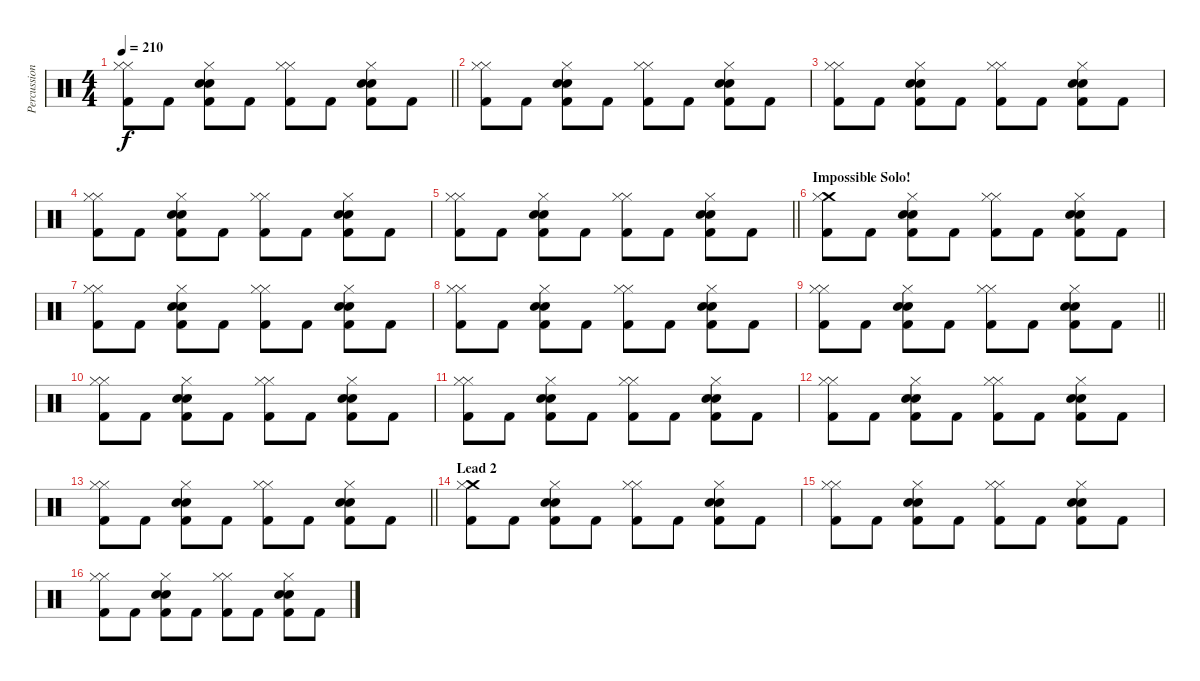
\track ("Percussion" "Percussion") {instrument percussion}
\staff {score}
\articulation defaults
\ts (4 4)
\tempo 210
\clef neutral
\barLineRight lightlight
\ks c
("Hi-Hat (closed)" "Hi-Hat (closed)" "Kick (hit) 2").8{dy f} "Kick (hit) 2".8 ("Hi-Hat (closed)" "Snare (hit) 2" "Electric Snare (hit)" "Kick (hit) 2").8 "Kick (hit) 2".8 ("Hi-Hat (closed)" "Hi-Hat (closed)" "Kick (hit) 2").8 "Kick (hit) 2".8 ("Hi-Hat (closed)" "Snare (hit) 2" "Electric Snare (hit)" "Kick (hit) 2").8 "Kick (hit) 2".8 |
("Hi-Hat (closed)" "Hi-Hat (closed)" "Kick (hit) 2").8 "Kick (hit) 2".8 ("Hi-Hat (closed)" "Snare (hit) 2" "Electric Snare (hit)" "Kick (hit) 2").8 "Kick (hit) 2".8 ("Hi-Hat (closed)" "Hi-Hat (closed)" "Kick (hit) 2").8 "Kick (hit) 2".8 ("Hi-Hat (closed)" "Snare (hit) 2" "Electric Snare (hit)" "Kick (hit) 2").8 "Kick (hit) 2".8 |
("Hi-Hat (closed)" "Hi-Hat (closed)" "Kick (hit) 2").8 "Kick (hit) 2".8 ("Hi-Hat (closed)" "Snare (hit) 2" "Electric Snare (hit)" "Kick (hit) 2").8 "Kick (hit) 2".8 ("Hi-Hat (closed)" "Hi-Hat (closed)" "Kick (hit) 2").8 "Kick (hit) 2".8 ("Hi-Hat (closed)" "Snare (hit) 2" "Electric Snare (hit)" "Kick (hit) 2").8 "Kick (hit) 2".8 |
("Hi-Hat (closed)" "Hi-Hat (closed)" "Kick (hit) 2").8 "Kick (hit) 2".8 ("Hi-Hat (closed)" "Snare (hit) 2" "Electric Snare (hit)" "Kick (hit) 2").8 "Kick (hit) 2".8 ("Hi-Hat (closed)" "Hi-Hat (closed)" "Kick (hit) 2").8 "Kick (hit) 2".8 ("Hi-Hat (closed)" "Snare (hit) 2" "Electric Snare (hit)" "Kick (hit) 2").8 "Kick (hit) 2".8 |
\barLineRight lightlight
("Hi-Hat (closed)" "Hi-Hat (closed)" "Kick (hit) 2").8 "Kick (hit) 2".8 ("Hi-Hat (closed)" "Snare (hit) 2" "Electric Snare (hit)" "Kick (hit) 2").8 "Kick (hit) 2".8 ("Hi-Hat (closed)" "Hi-Hat (closed)" "Kick (hit) 2").8 "Kick (hit) 2".8 ("Hi-Hat (closed)" "Snare (hit) 2" "Electric Snare (hit)" "Kick (hit) 2").8 "Kick (hit) 2".8 |
\section ("" "Impossible Solo!")
("Crash medium (hit)" "Hi-Hat (closed)" "Kick (hit) 2").8 "Kick (hit) 2".8 ("Hi-Hat (closed)" "Snare (hit) 2" "Electric Snare (hit)" "Kick (hit) 2").8 "Kick (hit) 2".8 ("Hi-Hat (closed)" "Hi-Hat (closed)" "Kick (hit) 2").8 "Kick (hit) 2".8 ("Hi-Hat (closed)" "Snare (hit) 2" "Electric Snare (hit)" "Kick (hit) 2").8 "Kick (hit) 2".8 |
("Hi-Hat (closed)" "Hi-Hat (closed)" "Kick (hit) 2").8 "Kick (hit) 2".8 ("Hi-Hat (closed)" "Snare (hit) 2" "Electric Snare (hit)" "Kick (hit) 2").8 "Kick (hit) 2".8 ("Hi-Hat (closed)" "Hi-Hat (closed)" "Kick (hit) 2").8 "Kick (hit) 2".8 ("Hi-Hat (closed)" "Snare (hit) 2" "Electric Snare (hit)" "Kick (hit) 2").8 "Kick (hit) 2".8 |
("Hi-Hat (closed)" "Hi-Hat (closed)" "Kick (hit) 2").8 "Kick (hit) 2".8 ("Hi-Hat (closed)" "Snare (hit) 2" "Electric Snare (hit)" "Kick (hit) 2").8 "Kick (hit) 2".8 ("Hi-Hat (closed)" "Hi-Hat (closed)" "Kick (hit) 2").8 "Kick (hit) 2".8 ("Hi-Hat (closed)" "Snare (hit) 2" "Electric Snare (hit)" "Kick (hit) 2").8 "Kick (hit) 2".8 |
\barLineRight lightlight
("Hi-Hat (closed)" "Hi-Hat (closed)" "Kick (hit) 2").8 "Kick (hit) 2".8 ("Hi-Hat (closed)" "Snare (hit) 2" "Electric Snare (hit)" "Kick (hit) 2").8 "Kick (hit) 2".8 ("Hi-Hat (closed)" "Hi-Hat (closed)" "Kick (hit) 2").8 "Kick (hit) 2".8 ("Hi-Hat (closed)" "Snare (hit) 2" "Electric Snare (hit)" "Kick (hit) 2").8 "Kick (hit) 2".8 |
("Hi-Hat (closed)" "Hi-Hat (closed)" "Kick (hit) 2").8 "Kick (hit) 2".8 ("Hi-Hat (closed)" "Snare (hit) 2" "Electric Snare (hit)" "Kick (hit) 2").8 "Kick (hit) 2".8 ("Hi-Hat (closed)" "Hi-Hat (closed)" "Kick (hit) 2").8 "Kick (hit) 2".8 ("Hi-Hat (closed)" "Snare (hit) 2" "Electric Snare (hit)" "Kick (hit) 2").8 "Kick (hit) 2".8 |
("Hi-Hat (closed)" "Hi-Hat (closed)" "Kick (hit) 2").8 "Kick (hit) 2".8 ("Hi-Hat (closed)" "Snare (hit) 2" "Electric Snare (hit)" "Kick (hit) 2").8 "Kick (hit) 2".8 ("Hi-Hat (closed)" "Hi-Hat (closed)" "Kick (hit) 2").8 "Kick (hit) 2".8 ("Hi-Hat (closed)" "Snare (hit) 2" "Electric Snare (hit)" "Kick (hit) 2").8 "Kick (hit) 2".8 |
("Hi-Hat (closed)" "Hi-Hat (closed)" "Kick (hit) 2").8 "Kick (hit) 2".8 ("Hi-Hat (closed)" "Snare (hit) 2" "Electric Snare (hit)" "Kick (hit) 2").8 "Kick (hit) 2".8 ("Hi-Hat (closed)" "Hi-Hat (closed)" "Kick (hit) 2").8 "Kick (hit) 2".8 ("Hi-Hat (closed)" "Snare (hit) 2" "Electric Snare (hit)" "Kick (hit) 2").8 "Kick (hit) 2".8 |
\barLineRight lightlight
("Hi-Hat (closed)" "Hi-Hat (closed)" "Kick (hit) 2").8 "Kick (hit) 2".8 ("Hi-Hat (closed)" "Snare (hit) 2" "Electric Snare (hit)" "Kick (hit) 2").8 "Kick (hit) 2".8 ("Hi-Hat (closed)" "Hi-Hat (closed)" "Kick (hit) 2").8 "Kick (hit) 2".8 ("Hi-Hat (closed)" "Snare (hit) 2" "Electric Snare (hit)" "Kick (hit) 2").8 "Kick (hit) 2".8 |
\section ("" "Lead 2")
("Crash medium (hit)" "Hi-Hat (closed)" "Kick (hit) 2").8 "Kick (hit) 2".8 ("Hi-Hat (closed)" "Snare (hit) 2" "Electric Snare (hit)" "Kick (hit) 2").8 "Kick (hit) 2".8 ("Hi-Hat (closed)" "Hi-Hat (closed)" "Kick (hit) 2").8 "Kick (hit) 2".8 ("Hi-Hat (closed)" "Snare (hit) 2" "Electric Snare (hit)" "Kick (hit) 2").8 "Kick (hit) 2".8 |
("Hi-Hat (closed)" "Hi-Hat (closed)" "Kick (hit) 2").8 "Kick (hit) 2".8 ("Hi-Hat (closed)" "Snare (hit) 2" "Electric Snare (hit)" "Kick (hit) 2").8 "Kick (hit) 2".8 ("Hi-Hat (closed)" "Hi-Hat (closed)" "Kick (hit) 2").8 "Kick (hit) 2".8 ("Hi-Hat (closed)" "Snare (hit) 2" "Electric Snare (hit)" "Kick (hit) 2").8 "Kick (hit) 2".8 |
("Hi-Hat (closed)" "Hi-Hat (closed)" "Kick (hit) 2").8 "Kick (hit) 2".8 ("Hi-Hat (closed)" "Snare (hit) 2" "Electric Snare (hit)" "Kick (hit) 2").8 "Kick (hit) 2".8 ("Hi-Hat (closed)" "Hi-Hat (closed)" "Kick (hit) 2").8 "Kick (hit) 2".8 ("Hi-Hat (closed)" "Snare (hit) 2" "Electric Snare (hit)" "Kick (hit) 2").8 "Kick (hit) 2".8
